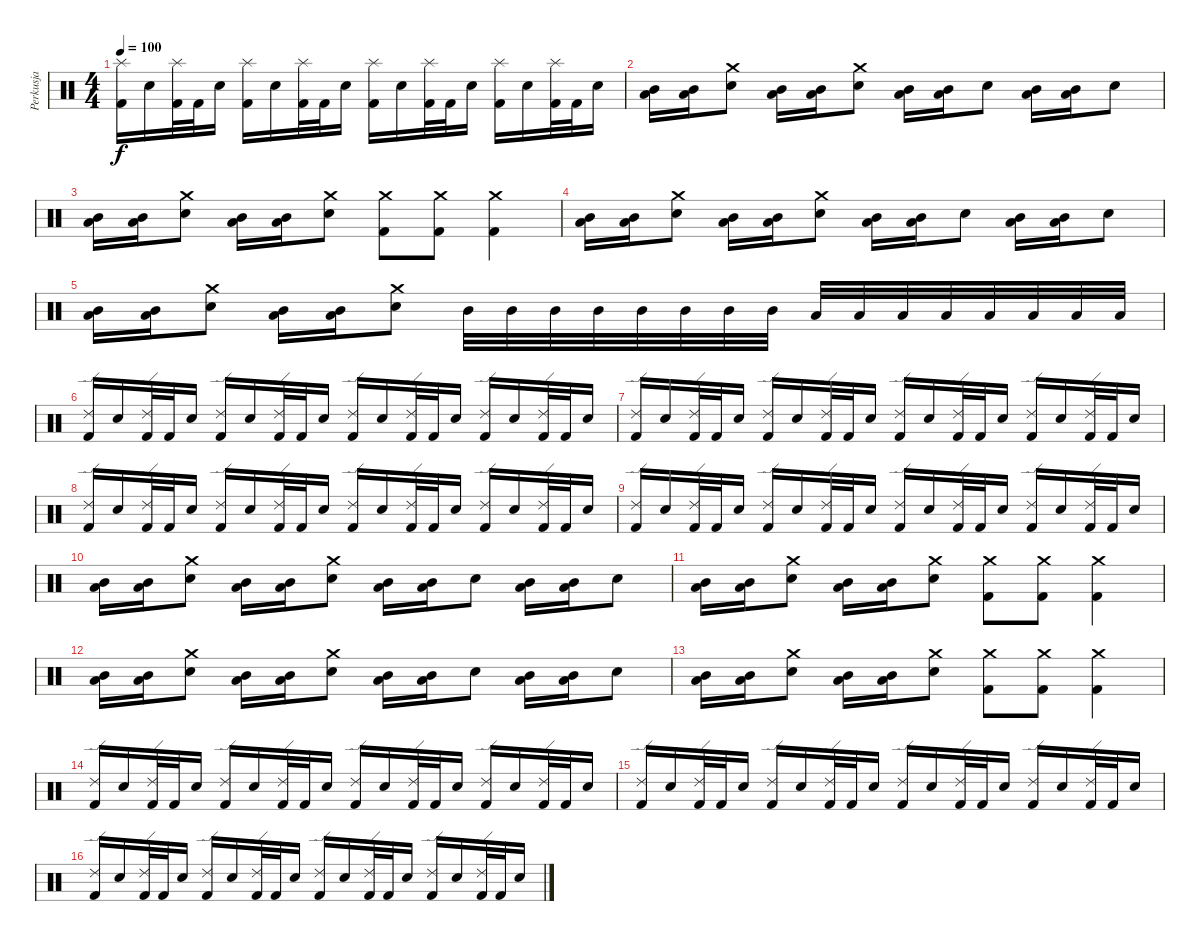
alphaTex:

\track ("Perkusja" "Perkusja") {instrument percussion}
\staff {score}
\articulation defaults
\ts (4 4)
\tempo 100
\clef neutral
\ks c
("Splash (hit)" "Kick (hit) 2").16{dy f} "Snare (hit) 2".16 ("Splash (hit)" "Kick (hit) 2").32 "Kick (hit) 2".32 "Snare (hit) 2".16 ("Splash (hit)" "Kick (hit) 2").16 "Snare (hit) 2".16 ("Splash (hit)" "Kick (hit) 2").32 "Kick (hit) 2".32 "Snare (hit) 2".16 ("Splash (hit)" "Kick (hit) 2").16 "Snare (hit) 2".16 ("Splash (hit)" "Kick (hit) 2").32 "Kick (hit) 2".32 "Snare (hit) 2".16 ("Splash (hit)" "Kick (hit) 2").16 "Snare (hit) 2".16 ("Splash (hit)" "Kick (hit) 2").32 "Kick (hit) 2".32 "Snare (hit) 2".16 |
("Mid Tom (hit)" "Low Tom (hit)").16 ("Mid Tom (hit)" "Low Tom (hit)").16 ("Crash medium (hit)" "Snare (hit) 2").8 ("Mid Tom (hit)" "Low Tom (hit)").16 ("Mid Tom (hit)" "Low Tom (hit)").16 ("Crash medium (hit)" "Snare (hit) 2").8 ("Mid Tom (hit)" "Low Tom (hit)").16 ("Mid Tom (hit)" "Low Tom (hit)").16 "Snare (hit) 2".8 ("Mid Tom (hit)" "Low Tom (hit)").16 ("Mid Tom (hit)" "Low Tom (hit)").16 "Snare (hit) 2".8 |
("Mid Tom (hit)" "Low Tom (hit)").16 ("Mid Tom (hit)" "Low Tom (hit)").16 ("Crash medium (hit)" "Snare (hit) 2").8 ("Mid Tom (hit)" "Low Tom (hit)").16 ("Mid Tom (hit)" "Low Tom (hit)").16 ("Crash medium (hit)" "Snare (hit) 2").8 ("Crash medium (hit)" "Kick (hit) 2").8 ("Crash medium (hit)" "Kick (hit) 2").8 ("Crash medium (hit)" "Kick (hit) 2").4 |
("Mid Tom (hit)" "Low Tom (hit)").16 ("Mid Tom (hit)" "Low Tom (hit)").16 ("Crash medium (hit)" "Snare (hit) 2").8 ("Mid Tom (hit)" "Low Tom (hit)").16 ("Mid Tom (hit)" "Low Tom (hit)").16 ("Crash medium (hit)" "Snare (hit) 2").8 ("Mid Tom (hit)" "Low Tom (hit)").16 ("Mid Tom (hit)" "Low Tom (hit)").16 "Snare (hit) 2".8 ("Mid Tom (hit)" "Low Tom (hit)").16 ("Mid Tom (hit)" "Low Tom (hit)").16 "Snare (hit) 2".8 |
("Mid Tom (hit)" "Low Tom (hit)").16 ("Mid Tom (hit)" "Low Tom (hit)").16 ("Crash medium (hit)" "Snare (hit) 2").8 ("Mid Tom (hit)" "Low Tom (hit)").16 ("Mid Tom (hit)" "Low Tom (hit)").16 ("Crash medium (hit)" "Snare (hit) 2").8 "Mid Tom (hit)".32 "Mid Tom (hit)".32 "Mid Tom (hit)".32 "Mid Tom (hit)".32 "Mid Tom (hit)".32 "Mid Tom (hit)".32 "Mid Tom (hit)".32 "Mid Tom (hit)".32 "Low Tom (hit)".32 "Low Tom (hit)".32 "Low Tom (hit)".32 "Low Tom (hit)".32 "Low Tom (hit)".32 "Low Tom (hit)".32 "Low Tom (hit)".32 "Low Tom (hit)".32 |
("Ride (edge) 2" "Kick (hit) 2").16 "Snare (hit) 2".16 ("Ride (edge) 2" "Kick (hit) 2").32 "Kick (hit) 2".32 "Snare (hit) 2".16 ("Ride (edge) 2" "Kick (hit) 2").16 "Snare (hit) 2".16 ("Ride (edge) 2" "Kick (hit) 2").32 "Kick (hit) 2".32 "Snare (hit) 2".16 ("Ride (edge) 2" "Kick (hit) 2").16 "Snare (hit) 2".16 ("Ride (edge) 2" "Kick (hit) 2").32 "Kick (hit) 2".32 "Snare (hit) 2".16 ("Ride (edge) 2" "Kick (hit) 2").16 "Snare (hit) 2".16 ("Ride (edge) 2" "Kick (hit) 2").32 "Kick (hit) 2".32 "Snare (hit) 2".16 |
("Ride (edge) 2" "Kick (hit) 2").16 "Snare (hit) 2".16 ("Ride (edge) 2" "Kick (hit) 2").32 "Kick (hit) 2".32 "Snare (hit) 2".16 ("Ride (edge) 2" "Kick (hit) 2").16 "Snare (hit) 2".16 ("Ride (edge) 2" "Kick (hit) 2").32 "Kick (hit) 2".32 "Snare (hit) 2".16 ("Ride (edge) 2" "Kick (hit) 2").16 "Snare (hit) 2".16 ("Ride (edge) 2" "Kick (hit) 2").32 "Kick (hit) 2".32 "Snare (hit) 2".16 ("Ride (edge) 2" "Kick (hit) 2").16 "Snare (hit) 2".16 ("Ride (edge) 2" "Kick (hit) 2").32 "Kick (hit) 2".32 "Snare (hit) 2".16 |
("Ride (edge) 2" "Kick (hit) 2").16 "Snare (hit) 2".16 ("Ride (edge) 2" "Kick (hit) 2").32 "Kick (hit) 2".32 "Snare (hit) 2".16 ("Ride (edge) 2" "Kick (hit) 2").16 "Snare (hit) 2".16 ("Ride (edge) 2" "Kick (hit) 2").32 "Kick (hit) 2".32 "Snare (hit) 2".16 ("Ride (edge) 2" "Kick (hit) 2").16 "Snare (hit) 2".16 ("Ride (edge) 2" "Kick (hit) 2").32 "Kick (hit) 2".32 "Snare (hit) 2".16 ("Ride (edge) 2" "Kick (hit) 2").16 "Snare (hit) 2".16 ("Ride (edge) 2" "Kick (hit) 2").32 "Kick (hit) 2".32 "Snare (hit) 2".16 |
("Ride (edge) 2" "Kick (hit) 2").16 "Snare (hit) 2".16 ("Ride (edge) 2" "Kick (hit) 2").32 "Kick (hit) 2".32 "Snare (hit) 2".16 ("Ride (edge) 2" "Kick (hit) 2").16 "Snare (hit) 2".16 ("Ride (edge) 2" "Kick (hit) 2").32 "Kick (hit) 2".32 "Snare (hit) 2".16 ("Ride (edge) 2" "Kick (hit) 2").16 "Snare (hit) 2".16 ("Ride (edge) 2" "Kick (hit) 2").32 "Kick (hit) 2".32 "Snare (hit) 2".16 ("Ride (edge) 2" "Kick (hit) 2").16 "Snare (hit) 2".16 ("Ride (edge) 2" "Kick (hit) 2").32 "Kick (hit) 2".32 "Snare (hit) 2".16 |
("Mid Tom (hit)" "Low Tom (hit)").16 ("Mid Tom (hit)" "Low Tom (hit)").16 ("Crash medium (hit)" "Snare (hit) 2").8 ("Mid Tom (hit)" "Low Tom (hit)").16 ("Mid Tom (hit)" "Low Tom (hit)").16 ("Crash medium (hit)" "Snare (hit) 2").8 ("Mid Tom (hit)" "Low Tom (hit)").16 ("Mid Tom (hit)" "Low Tom (hit)").16 "Snare (hit) 2".8 ("Mid Tom (hit)" "Low Tom (hit)").16 ("Mid Tom (hit)" "Low Tom (hit)").16 "Snare (hit) 2".8 |
("Mid Tom (hit)" "Low Tom (hit)").16 ("Mid Tom (hit)" "Low Tom (hit)").16 ("Crash medium (hit)" "Snare (hit) 2").8 ("Mid Tom (hit)" "Low Tom (hit)").16 ("Mid Tom (hit)" "Low Tom (hit)").16 ("Crash medium (hit)" "Snare (hit) 2").8 ("Crash medium (hit)" "Kick (hit) 2").8 ("Crash medium (hit)" "Kick (hit) 2").8 ("Crash medium (hit)" "Kick (hit) 2").4 |
("Mid Tom (hit)" "Low Tom (hit)").16 ("Mid Tom (hit)" "Low Tom (hit)").16 ("Crash medium (hit)" "Snare (hit) 2").8 ("Mid Tom (hit)" "Low Tom (hit)").16 ("Mid Tom (hit)" "Low Tom (hit)").16 ("Crash medium (hit)" "Snare (hit) 2").8 ("Mid Tom (hit)" "Low Tom (hit)").16 ("Mid Tom (hit)" "Low Tom (hit)").16 "Snare (hit) 2".8 ("Mid Tom (hit)" "Low Tom (hit)").16 ("Mid Tom (hit)" "Low Tom (hit)").16 "Snare (hit) 2".8 |
("Mid Tom (hit)" "Low Tom (hit)").16 ("Mid Tom (hit)" "Low Tom (hit)").16 ("Crash medium (hit)" "Snare (hit) 2").8 ("Mid Tom (hit)" "Low Tom (hit)").16 ("Mid Tom (hit)" "Low Tom (hit)").16 ("Crash medium (hit)" "Snare (hit) 2").8 ("Crash medium (hit)" "Kick (hit) 2").8 ("Crash medium (hit)" "Kick (hit) 2").8 ("Crash medium (hit)" "Kick (hit) 2").4 |
("Ride (edge) 2" "Kick (hit) 2").16 "Snare (hit) 2".16 ("Ride (edge) 2" "Kick (hit) 2").32 "Kick (hit) 2".32 "Snare (hit) 2".16 ("Ride (edge) 2" "Kick (hit) 2").16 "Snare (hit) 2".16 ("Ride (edge) 2" "Kick (hit) 2").32 "Kick (hit) 2".32 "Snare (hit) 2".16 ("Ride (edge) 2" "Kick (hit) 2").16 "Snare (hit) 2".16 ("Ride (edge) 2" "Kick (hit) 2").32 "Kick (hit) 2".32 "Snare (hit) 2".16 ("Ride (edge) 2" "Kick (hit) 2").16 "Snare (hit) 2".16 ("Ride (edge) 2" "Kick (hit) 2").32 "Kick (hit) 2".32 "Snare (hit) 2".16 |
("Ride (edge) 2" "Kick (hit) 2").16 "Snare (hit) 2".16 ("Ride (edge) 2" "Kick (hit) 2").32 "Kick (hit) 2".32 "Snare (hit) 2".16 ("Ride (edge) 2" "Kick (hit) 2").16 "Snare (hit) 2".16 ("Ride (edge) 2" "Kick (hit) 2").32 "Kick (hit) 2".32 "Snare (hit) 2".16 ("Ride (edge) 2" "Kick (hit) 2").16 "Snare (hit) 2".16 ("Ride (edge) 2" "Kick (hit) 2").32 "Kick (hit) 2".32 "Snare (hit) 2".16 ("Ride (edge) 2" "Kick (hit) 2").16 "Snare (hit) 2".16 ("Ride (edge) 2" "Kick (hit) 2").32 "Kick (hit) 2".32 "Snare (hit) 2".16 |
("Ride (edge) 2" "Kick (hit) 2").16 "Snare (hit) 2".16 ("Ride (edge) 2" "Kick (hit) 2").32 "Kick (hit) 2".32 "Snare (hit) 2".16 ("Ride (edge) 2" "Kick (hit) 2").16 "Snare (hit) 2".16 ("Ride (edge) 2" "Kick (hit) 2").32 "Kick (hit) 2".32 "Snare (hit) 2".16 ("Ride (edge) 2" "Kick (hit) 2").16 "Snare (hit) 2".16 ("Ride (edge) 2" "Kick (hit) 2").32 "Kick (hit) 2".32 "Snare (hit) 2".16 ("Ride (edge) 2" "Kick (hit) 2").16 "Snare (hit) 2".16 ("Ride (edge) 2" "Kick (hit) 2").32 "Kick (hit) 2".32 "Snare (hit) 2".16
